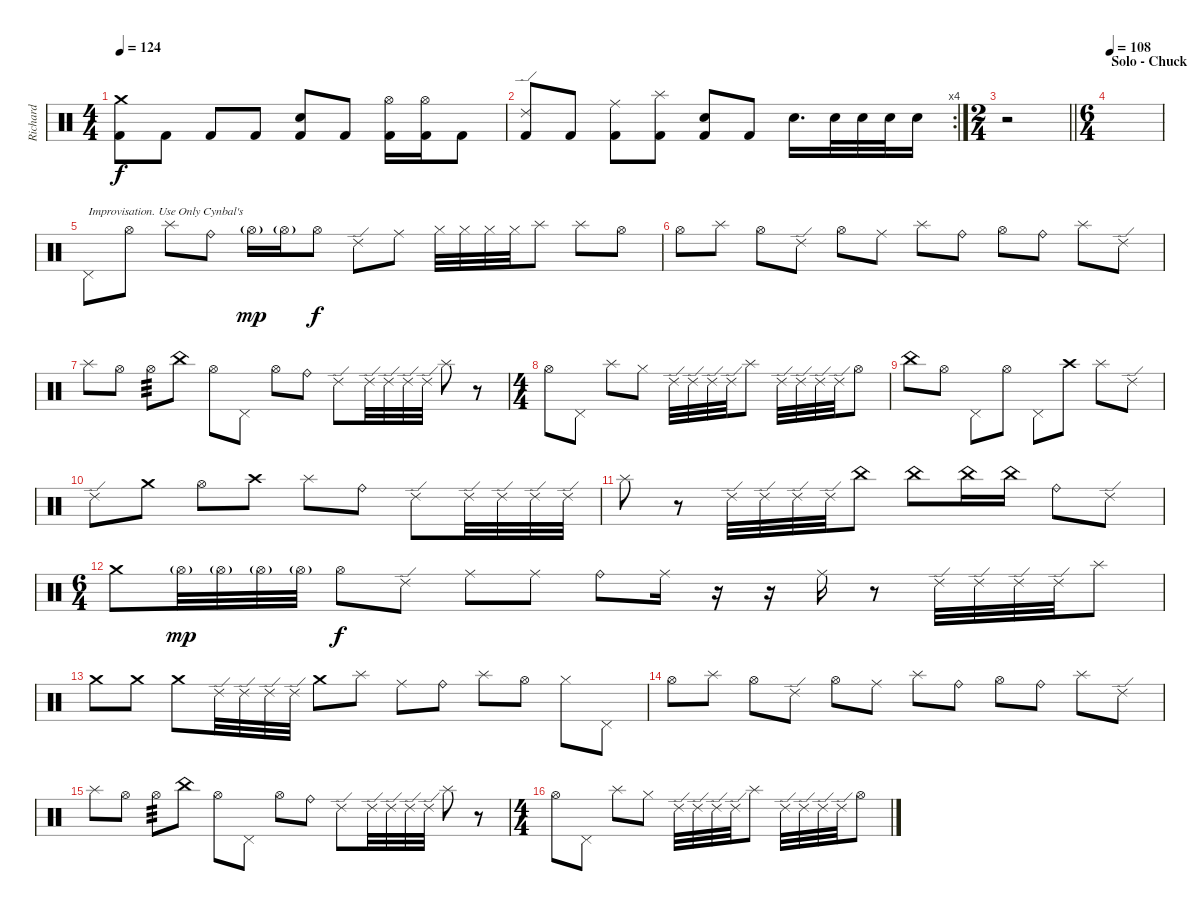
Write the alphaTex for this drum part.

\track ("Richard" "Richard") {instrument percussion}
\staff {score}
\articulation defaults
\ts (4 4)
\tempo 124
\clef neutral
\ks c
("Crash medium (hit)" "Kick (hit) 2").8{dy f} "Kick (hit) 2".8 "Kick (hit) 2".8 "Kick (hit) 2".8 ("Electric Snare (hit)" "Kick (hit) 2").8 "Kick (hit) 2".8 ("Hi-Hat (open)" "Kick (hit) 2").16 ("Hi-Hat (open)" "Kick (hit) 2").16 "Kick (hit) 2".8 |
\rc 4
("Ride (edge) 2" "Kick (hit) 2").8 "Kick (hit) 2".8 ("Ride (middle)" "Kick (hit) 2").8 ("Splash (hit)" "Kick (hit) 2").8 ("Electric Snare (hit)" "Kick (hit) 2").8 "Kick (hit) 2".8 "Electric Snare (hit)".16{d} "Electric Snare (hit)".32 "Electric Snare (hit)".32 "Electric Snare (hit)".32 "Electric Snare (hit)".16 |
\ts (2 4)
\barLineRight lightlight
r.2 |
\ts (6 4)
\section ("" "Solo - Chuck")
\tempo 108
|
"Pedal Hi-Hat (hit)".8{txt "Improvisation. Use Only Cynbal's"} "Hi-Hat (open)".8 "Splash (hit)".8 "Ride (bell)".8 "Hi-Hat (open)"{g}.16{dy mp} "Hi-Hat (open)"{g}.16 "Hi-Hat (open)".8{dy f} "Ride (edge) 2".8 "Ride (middle)".8 "Hi-Hat (closed)".32 "Hi-Hat (closed)".32 "Hi-Hat (closed)".32 "Hi-Hat (closed)".32 "Splash (hit)".8 "Splash (hit)".8 "Hi-Hat (open)".8 |
"Hi-Hat (open)".8 "Splash (hit)".8 "Hi-Hat (open)".8 "Ride (edge) 2".8 "Hi-Hat (open)".8 "Ride (middle)".8 "Splash (hit)".8 "Ride (bell)".8 "Hi-Hat (open)".8 "Ride (bell)".8 "Splash (hit)".8 "Ride (edge) 2".8 |
"Splash (hit)".8 "Hi-Hat (open)".8 "Hi-Hat (open)".8{tp 3} "China (hit)".8 "Hi-Hat (open)".8 "Pedal Hi-Hat (hit)".8 "Hi-Hat (open)".8 "Ride (bell)".8 "Ride (edge) 2".8 "Ride (edge) 2".32 "Ride (edge) 2".32 "Ride (edge) 2".32 "Ride (edge) 2".32 "Splash (hit)".8 r.8 |
\ts (4 4)
"Hi-Hat (open)".8 "Pedal Hi-Hat (hit)".8 "Splash (hit)".8 "Hi-Hat (closed)".8 "Ride (edge) 2".32 "Ride (edge) 2".32 "Ride (edge) 2".32 "Ride (edge) 2".32 "Splash (hit)".8 "Ride (edge) 2".32 "Ride (edge) 2".32 "Ride (edge) 2".32 "Ride (edge) 2".32 "Hi-Hat (open)".8 |
"China (hit)".8 "Hi-Hat (open)".8 "Pedal Hi-Hat (hit)".8 "Hi-Hat (open)".8 "Pedal Hi-Hat (hit)".8 "Crash high (hit)".8 "Splash (hit)".8 "Ride (edge) 2".8 |
"Ride (edge) 2".8 "Crash medium (hit)".8 "Hi-Hat (open)".8 "Crash high (hit)".8 "Splash (hit)".8 "Ride (bell)".8 "Ride (edge) 2".8 "Ride (edge) 2".32 "Ride (edge) 2".32 "Ride (edge) 2".32 "Ride (edge) 2".32 |
"Splash (hit)".8 r.8 "Ride (edge) 2".32 "Ride (edge) 2".32 "Ride (edge) 2".32 "Ride (edge) 2".32 "China (hit)".8 "China (hit)".8 "China (hit)".16 "China (hit)".16 "Ride (bell)".8 "Ride (edge) 2".8 |
\ts (6 4)
"Crash medium (hit)".8 "Hi-Hat (open)"{g}.32{dy mp} "Hi-Hat (open)"{g}.32 "Hi-Hat (open)"{g}.32 "Hi-Hat (open)"{g}.32 "Hi-Hat (open)".8{dy f} "Ride (edge) 2".8 "Ride (middle)".8 "Ride (middle)".8 "Ride (bell)".8 "Ride (middle)".16 r.16 r.16 "Ride (middle)".16 r.8 "Ride (edge) 2".32 "Ride (edge) 2".32 "Ride (edge) 2".32 "Ride (edge) 2".32 "Splash (hit)".8 |
"Crash medium (hit)".8 "Crash medium (hit)".8 "Crash medium (hit)".8 "Ride (edge) 2".32 "Ride (edge) 2".32 "Ride (edge) 2".32 "Ride (edge) 2".32 "Crash medium (hit)".8 "Splash (hit)".8 "Ride (middle)".8 "Ride (bell)".8 "Splash (hit)".8 "Hi-Hat (open)".8 "Hi-Hat (closed)".8 "Pedal Hi-Hat (hit)".8 |
"Hi-Hat (open)".8 "Splash (hit)".8 "Hi-Hat (open)".8 "Ride (edge) 2".8 "Hi-Hat (open)".8 "Ride (middle)".8 "Splash (hit)".8 "Ride (bell)".8 "Hi-Hat (open)".8 "Ride (bell)".8 "Splash (hit)".8 "Ride (edge) 2".8 |
"Splash (hit)".8 "Hi-Hat (open)".8 "Hi-Hat (open)".8{tp 3} "China (hit)".8 "Hi-Hat (open)".8 "Pedal Hi-Hat (hit)".8 "Hi-Hat (open)".8 "Ride (bell)".8 "Ride (edge) 2".8 "Ride (edge) 2".32 "Ride (edge) 2".32 "Ride (edge) 2".32 "Ride (edge) 2".32 "Splash (hit)".8 r.8 |
\ts (4 4)
"Hi-Hat (open)".8 "Pedal Hi-Hat (hit)".8 "Splash (hit)".8 "Hi-Hat (closed)".8 "Ride (edge) 2".32 "Ride (edge) 2".32 "Ride (edge) 2".32 "Ride (edge) 2".32 "Splash (hit)".8 "Ride (edge) 2".32 "Ride (edge) 2".32 "Ride (edge) 2".32 "Ride (edge) 2".32 "Hi-Hat (open)".8
